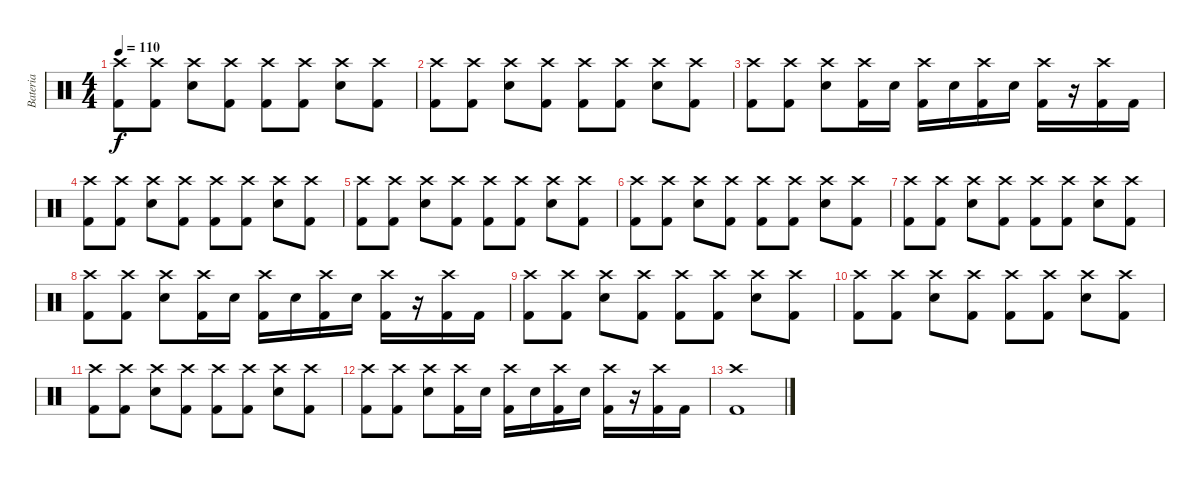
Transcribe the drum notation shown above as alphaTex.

\track ("Bateria" "Bateria") {instrument percussion}
\staff {score}
\articulation defaults
\ts (4 4)
\tempo 110
\clef neutral
\ks c
("Crash high (hit)" "Kick (hit) 2").8{dy f} ("Crash high (hit)" "Kick (hit) 2").8 ("Crash high (hit)" "Snare (hit) 2").8 ("Crash high (hit)" "Kick (hit) 2").8 ("Crash high (hit)" "Kick (hit) 2").8 ("Crash high (hit)" "Kick (hit) 2").8 ("Crash high (hit)" "Snare (hit) 2").8 ("Crash high (hit)" "Kick (hit) 2").8 |
("Crash high (hit)" "Kick (hit) 2").8 ("Crash high (hit)" "Kick (hit) 2").8 ("Crash high (hit)" "Snare (hit) 2").8 ("Crash high (hit)" "Kick (hit) 2").8 ("Crash high (hit)" "Kick (hit) 2").8 ("Crash high (hit)" "Kick (hit) 2").8 ("Crash high (hit)" "Snare (hit) 2").8 ("Crash high (hit)" "Kick (hit) 2").8 |
("Crash high (hit)" "Kick (hit) 2").8 ("Crash high (hit)" "Kick (hit) 2").8 ("Crash high (hit)" "Snare (hit) 2").8 ("Crash high (hit)" "Kick (hit) 2").16 "Snare (hit) 2".16 ("Crash high (hit)" "Kick (hit) 2").16 "Snare (hit) 2".16 ("Crash high (hit)" "Kick (hit) 2").16 "Snare (hit) 2".16 ("Crash high (hit)" "Kick (hit) 2").16 r.16 ("Crash high (hit)" "Kick (hit) 2").16 "Kick (hit) 2".16 |
("Crash high (hit)" "Kick (hit) 2").8 ("Crash high (hit)" "Kick (hit) 2").8 ("Crash high (hit)" "Snare (hit) 2").8 ("Crash high (hit)" "Kick (hit) 2").8 ("Crash high (hit)" "Kick (hit) 2").8 ("Crash high (hit)" "Kick (hit) 2").8 ("Crash high (hit)" "Snare (hit) 2").8 ("Crash high (hit)" "Kick (hit) 2").8 |
("Crash high (hit)" "Kick (hit) 2").8 ("Crash high (hit)" "Kick (hit) 2").8 ("Crash high (hit)" "Snare (hit) 2").8 ("Crash high (hit)" "Kick (hit) 2").8 ("Crash high (hit)" "Kick (hit) 2").8 ("Crash high (hit)" "Kick (hit) 2").8 ("Crash high (hit)" "Snare (hit) 2").8 ("Crash high (hit)" "Kick (hit) 2").8 |
("Crash high (hit)" "Kick (hit) 2").8 ("Crash high (hit)" "Kick (hit) 2").8 ("Crash high (hit)" "Snare (hit) 2").8 ("Crash high (hit)" "Kick (hit) 2").8 ("Crash high (hit)" "Kick (hit) 2").8 ("Crash high (hit)" "Kick (hit) 2").8 ("Crash high (hit)" "Snare (hit) 2").8 ("Crash high (hit)" "Kick (hit) 2").8 |
("Crash high (hit)" "Kick (hit) 2").8 ("Crash high (hit)" "Kick (hit) 2").8 ("Crash high (hit)" "Snare (hit) 2").8 ("Crash high (hit)" "Kick (hit) 2").8 ("Crash high (hit)" "Kick (hit) 2").8 ("Crash high (hit)" "Kick (hit) 2").8 ("Crash high (hit)" "Snare (hit) 2").8 ("Crash high (hit)" "Kick (hit) 2").8 |
("Crash high (hit)" "Kick (hit) 2").8 ("Crash high (hit)" "Kick (hit) 2").8 ("Crash high (hit)" "Snare (hit) 2").8 ("Crash high (hit)" "Kick (hit) 2").16 "Snare (hit) 2".16 ("Crash high (hit)" "Kick (hit) 2").16 "Snare (hit) 2".16 ("Crash high (hit)" "Kick (hit) 2").16 "Snare (hit) 2".16 ("Crash high (hit)" "Kick (hit) 2").16 r.16 ("Crash high (hit)" "Kick (hit) 2").16 "Kick (hit) 2".16 |
("Crash high (hit)" "Kick (hit) 2").8 ("Crash high (hit)" "Kick (hit) 2").8 ("Crash high (hit)" "Snare (hit) 2").8 ("Crash high (hit)" "Kick (hit) 2").8 ("Crash high (hit)" "Kick (hit) 2").8 ("Crash high (hit)" "Kick (hit) 2").8 ("Crash high (hit)" "Snare (hit) 2").8 ("Crash high (hit)" "Kick (hit) 2").8 |
("Crash high (hit)" "Kick (hit) 2").8 ("Crash high (hit)" "Kick (hit) 2").8 ("Crash high (hit)" "Snare (hit) 2").8 ("Crash high (hit)" "Kick (hit) 2").8 ("Crash high (hit)" "Kick (hit) 2").8 ("Crash high (hit)" "Kick (hit) 2").8 ("Crash high (hit)" "Snare (hit) 2").8 ("Crash high (hit)" "Kick (hit) 2").8 |
("Crash high (hit)" "Kick (hit) 2").8 ("Crash high (hit)" "Kick (hit) 2").8 ("Crash high (hit)" "Snare (hit) 2").8 ("Crash high (hit)" "Kick (hit) 2").8 ("Crash high (hit)" "Kick (hit) 2").8 ("Crash high (hit)" "Kick (hit) 2").8 ("Crash high (hit)" "Snare (hit) 2").8 ("Crash high (hit)" "Kick (hit) 2").8 |
("Crash high (hit)" "Kick (hit) 2").8 ("Crash high (hit)" "Kick (hit) 2").8 ("Crash high (hit)" "Snare (hit) 2").8 ("Crash high (hit)" "Kick (hit) 2").16 "Snare (hit) 2".16 ("Crash high (hit)" "Kick (hit) 2").16 "Snare (hit) 2".16 ("Crash high (hit)" "Kick (hit) 2").16 "Snare (hit) 2".16 ("Crash high (hit)" "Kick (hit) 2").16 r.16 ("Crash high (hit)" "Kick (hit) 2").16 "Kick (hit) 2".16 |
("Crash high (hit)" "Kick (hit) 2").1
